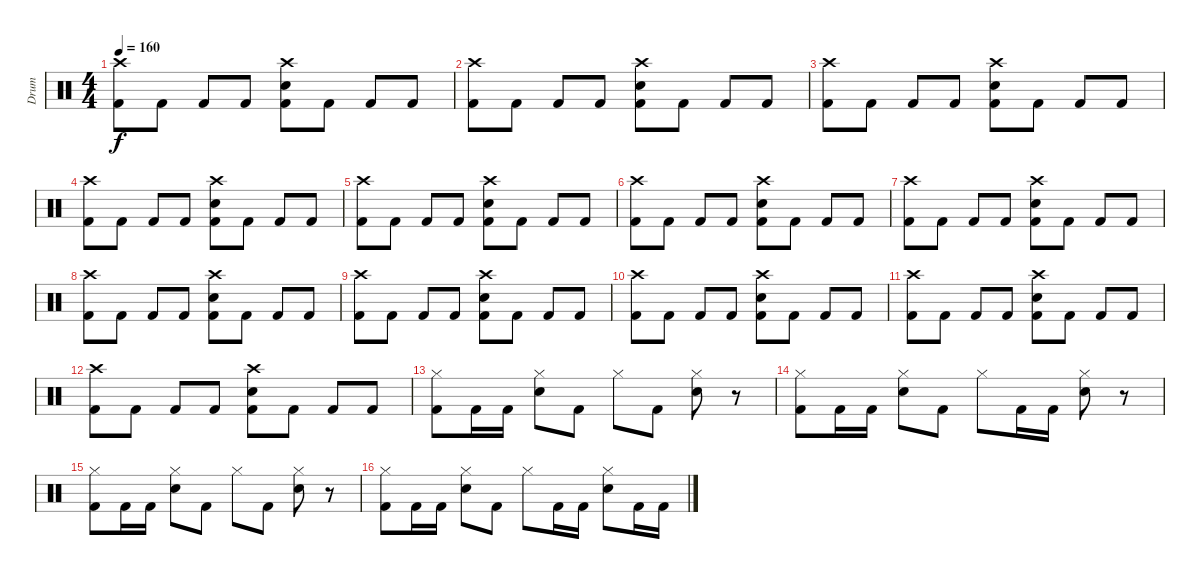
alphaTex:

\track ("Drum" "Drum") {instrument percussion}
\staff {score}
\articulation defaults
\ts (4 4)
\tempo 160
\clef neutral
\ks c
("Crash high (hit)" "Kick (hit) 2").8{dy f} "Kick (hit) 2".8 "Kick (hit) 2".8 "Kick (hit) 2".8 ("Crash high (hit)" "Electric Snare (hit)" "Kick (hit) 2").8 "Kick (hit) 2".8 "Kick (hit) 2".8 "Kick (hit) 2".8 |
("Crash high (hit)" "Kick (hit) 2").8 "Kick (hit) 2".8 "Kick (hit) 2".8 "Kick (hit) 2".8 ("Crash high (hit)" "Electric Snare (hit)" "Kick (hit) 2").8 "Kick (hit) 2".8 "Kick (hit) 2".8 "Kick (hit) 2".8 |
("Crash high (hit)" "Kick (hit) 2").8 "Kick (hit) 2".8 "Kick (hit) 2".8 "Kick (hit) 2".8 ("Crash high (hit)" "Electric Snare (hit)" "Kick (hit) 2").8 "Kick (hit) 2".8 "Kick (hit) 2".8 "Kick (hit) 2".8 |
("Crash high (hit)" "Kick (hit) 2").8 "Kick (hit) 2".8 "Kick (hit) 2".8 "Kick (hit) 2".8 ("Crash high (hit)" "Electric Snare (hit)" "Kick (hit) 2").8 "Kick (hit) 2".8 "Kick (hit) 2".8 "Kick (hit) 2".8 |
("Crash high (hit)" "Kick (hit) 2").8 "Kick (hit) 2".8 "Kick (hit) 2".8 "Kick (hit) 2".8 ("Crash high (hit)" "Electric Snare (hit)" "Kick (hit) 2").8 "Kick (hit) 2".8 "Kick (hit) 2".8 "Kick (hit) 2".8 |
("Crash high (hit)" "Kick (hit) 2").8 "Kick (hit) 2".8 "Kick (hit) 2".8 "Kick (hit) 2".8 ("Crash high (hit)" "Electric Snare (hit)" "Kick (hit) 2").8 "Kick (hit) 2".8 "Kick (hit) 2".8 "Kick (hit) 2".8 |
("Crash high (hit)" "Kick (hit) 2").8 "Kick (hit) 2".8 "Kick (hit) 2".8 "Kick (hit) 2".8 ("Crash high (hit)" "Electric Snare (hit)" "Kick (hit) 2").8 "Kick (hit) 2".8 "Kick (hit) 2".8 "Kick (hit) 2".8 |
("Crash high (hit)" "Kick (hit) 2").8 "Kick (hit) 2".8 "Kick (hit) 2".8 "Kick (hit) 2".8 ("Crash high (hit)" "Electric Snare (hit)" "Kick (hit) 2").8 "Kick (hit) 2".8 "Kick (hit) 2".8 "Kick (hit) 2".8 |
("Crash high (hit)" "Kick (hit) 2").8 "Kick (hit) 2".8 "Kick (hit) 2".8 "Kick (hit) 2".8 ("Crash high (hit)" "Electric Snare (hit)" "Kick (hit) 2").8 "Kick (hit) 2".8 "Kick (hit) 2".8 "Kick (hit) 2".8 |
("Crash high (hit)" "Kick (hit) 2").8 "Kick (hit) 2".8 "Kick (hit) 2".8 "Kick (hit) 2".8 ("Crash high (hit)" "Electric Snare (hit)" "Kick (hit) 2").8 "Kick (hit) 2".8 "Kick (hit) 2".8 "Kick (hit) 2".8 |
("Crash high (hit)" "Kick (hit) 2").8 "Kick (hit) 2".8 "Kick (hit) 2".8 "Kick (hit) 2".8 ("Crash high (hit)" "Electric Snare (hit)" "Kick (hit) 2").8 "Kick (hit) 2".8 "Kick (hit) 2".8 "Kick (hit) 2".8 |
("Crash high (hit)" "Kick (hit) 2").8 "Kick (hit) 2".8 "Kick (hit) 2".8 "Kick (hit) 2".8 ("Crash high (hit)" "Electric Snare (hit)" "Kick (hit) 2").8 "Kick (hit) 2".8 "Kick (hit) 2".8 "Kick (hit) 2".8 |
("Hi-Hat (closed)" "Kick (hit) 2").8 "Kick (hit) 2".16 "Kick (hit) 2".16 ("Hi-Hat (closed)" "Electric Snare (hit)").8 "Kick (hit) 2".8 "Hi-Hat (closed)".8 "Kick (hit) 2".8 ("Hi-Hat (closed)" "Electric Snare (hit)").8 r.8 |
("Hi-Hat (closed)" "Kick (hit) 2").8 "Kick (hit) 2".16 "Kick (hit) 2".16 ("Hi-Hat (closed)" "Electric Snare (hit)").8 "Kick (hit) 2".8 "Hi-Hat (closed)".8 "Kick (hit) 2".16 "Kick (hit) 2".16 ("Hi-Hat (closed)" "Electric Snare (hit)").8 r.8 |
("Hi-Hat (closed)" "Kick (hit) 2").8 "Kick (hit) 2".16 "Kick (hit) 2".16 ("Hi-Hat (closed)" "Electric Snare (hit)").8 "Kick (hit) 2".8 "Hi-Hat (closed)".8 "Kick (hit) 2".8 ("Hi-Hat (closed)" "Electric Snare (hit)").8 r.8 |
("Hi-Hat (closed)" "Kick (hit) 2").8 "Kick (hit) 2".16 "Kick (hit) 2".16 ("Hi-Hat (closed)" "Electric Snare (hit)").8 "Kick (hit) 2".8 "Hi-Hat (closed)".8 "Kick (hit) 2".16 "Kick (hit) 2".16 ("Hi-Hat (closed)" "Electric Snare (hit)").8 "Kick (hit) 2".16 "Kick (hit) 2".16
